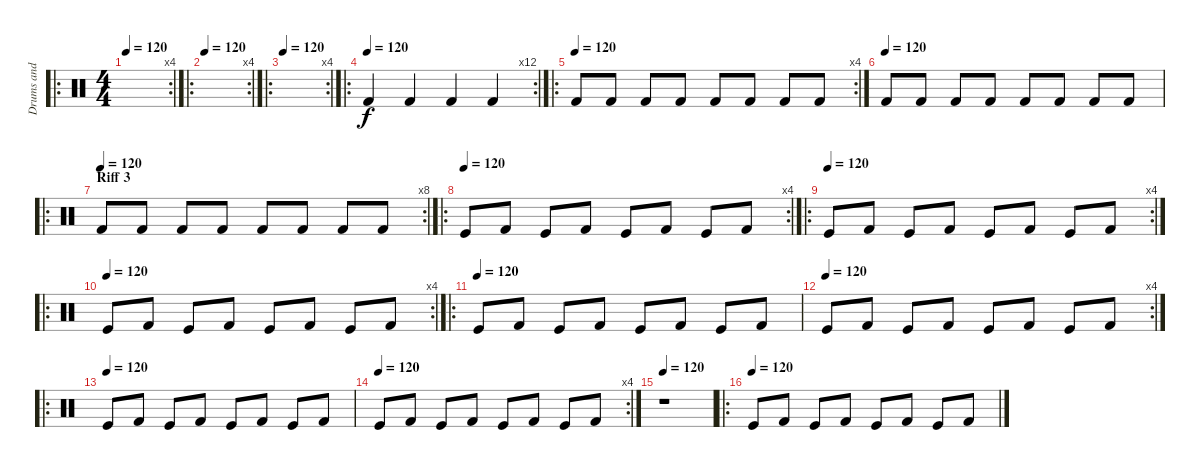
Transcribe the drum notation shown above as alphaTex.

\track ("Drums and Percussion" "Drums and ") {instrument percussion}
\staff {score}
\articulation defaults
\ro
\rc 4
\ts (4 4)
\tempo 120
\clef neutral
\ks c
|
\ro
\rc 4
\tempo 120
|
\ro
\rc 4
\tempo 120
|
\ro
\rc 12
\tempo (120)
"Kick (hit) 2".4 "Kick (hit) 2".4 "Kick (hit) 2".4 "Kick (hit) 2".4 |
\ro
\rc 4
\tempo (120)
"Kick (hit) 2".8 "Kick (hit) 2".8 "Kick (hit) 2".8 "Kick (hit) 2".8 "Kick (hit) 2".8 "Kick (hit) 2".8 "Kick (hit) 2".8 "Kick (hit) 2".8 |
\tempo (120)
"Kick (hit) 2".8 "Kick (hit) 2".8 "Kick (hit) 2".8 "Kick (hit) 2".8 "Kick (hit) 2".8 "Kick (hit) 2".8 "Kick (hit) 2".8 "Kick (hit) 2".8 |
\ro
\rc 8
\section ("" "Riff 3")
\tempo (120)
"Kick (hit) 2".8 "Kick (hit) 2".8 "Kick (hit) 2".8 "Kick (hit) 2".8 "Kick (hit) 2".8 "Kick (hit) 2".8 "Kick (hit) 2".8 "Kick (hit) 2".8 |
\ro
\rc 4
\tempo (120)
"Kick (hit)".8 "Kick (hit) 2".8 "Kick (hit)".8 "Kick (hit) 2".8 "Kick (hit)".8 "Kick (hit) 2".8 "Kick (hit)".8 "Kick (hit) 2".8 |
\ro
\rc 4
\tempo (120)
"Kick (hit)".8 "Kick (hit) 2".8 "Kick (hit)".8 "Kick (hit) 2".8 "Kick (hit)".8 "Kick (hit) 2".8 "Kick (hit)".8 "Kick (hit) 2".8 |
\ro
\rc 4
\tempo (120)
"Kick (hit)".8 "Kick (hit) 2".8 "Kick (hit)".8 "Kick (hit) 2".8 "Kick (hit)".8 "Kick (hit) 2".8 "Kick (hit)".8 "Kick (hit) 2".8 |
\ro
\tempo (120)
"Kick (hit)".8 "Kick (hit) 2".8 "Kick (hit)".8 "Kick (hit) 2".8 "Kick (hit)".8 "Kick (hit) 2".8 "Kick (hit)".8 "Kick (hit) 2".8 |
\rc 4
\tempo (120)
"Kick (hit)".8 "Kick (hit) 2".8 "Kick (hit)".8 "Kick (hit) 2".8 "Kick (hit)".8 "Kick (hit) 2".8 "Kick (hit)".8 "Kick (hit) 2".8 |
\ro
\tempo (120)
"Kick (hit)".8 "Kick (hit) 2".8 "Kick (hit)".8 "Kick (hit) 2".8 "Kick (hit)".8 "Kick (hit) 2".8 "Kick (hit)".8 "Kick (hit) 2".8 |
\rc 4
\tempo (120)
"Kick (hit)".8 "Kick (hit) 2".8 "Kick (hit)".8 "Kick (hit) 2".8 "Kick (hit)".8 "Kick (hit) 2".8 "Kick (hit)".8 "Kick (hit) 2".8 |
\tempo 120
r.1 |
\ro
\tempo (120)
"Kick (hit)".8 "Kick (hit) 2".8 "Kick (hit)".8 "Kick (hit) 2".8 "Kick (hit)".8 "Kick (hit) 2".8 "Kick (hit)".8 "Kick (hit) 2".8
